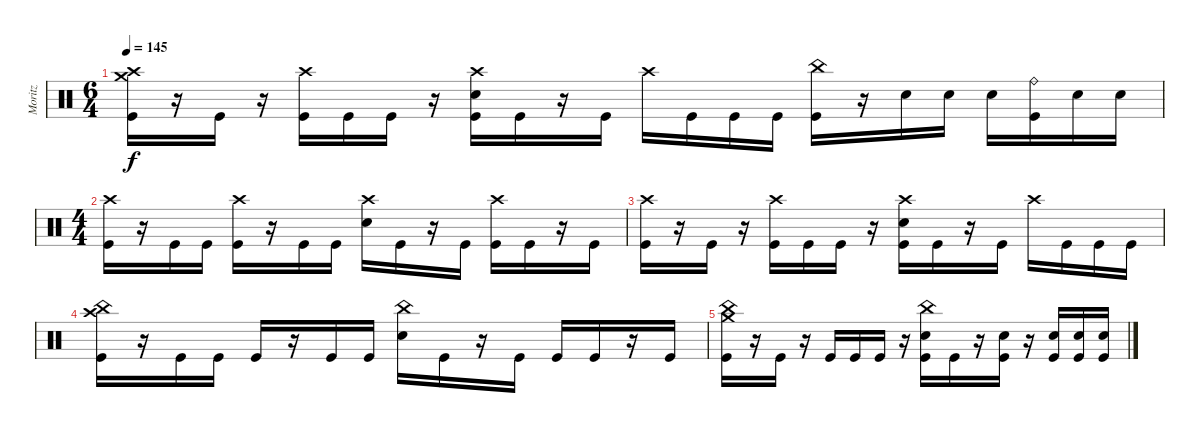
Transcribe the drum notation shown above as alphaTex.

\track ("Moritz" "Moritz") {instrument percussion}
\staff {score}
\articulation defaults
\ts (6 4)
\tempo 145
\clef neutral
\ks c
("Crash medium (hit)" "Crash high (hit)" "Kick (hit)").16{dy f} r.16 "Kick (hit)".16 r.16 ("Crash high (hit)" "Kick (hit)").16 "Kick (hit)".16 "Kick (hit)".16 r.16 ("Crash high (hit)" "Snare (hit) 2" "Kick (hit)").16 "Kick (hit)".16 r.16 "Kick (hit)".16 "Crash high (hit)".16 "Kick (hit)".16 "Kick (hit)".16 "Kick (hit)".16 ("China (hit)" "Kick (hit)").16 r.16 "Snare (hit) 2".16 "Snare (hit) 2".16 "Snare (hit) 2".16 ("Ride (bell)" "Kick (hit)").16 "Snare (hit) 2".16 "Snare (hit) 2".16 |
\ts (4 4)
("Crash high (hit)" "Kick (hit)").16 r.16 "Kick (hit)".16 "Kick (hit)".16 ("Crash high (hit)" "Kick (hit)").16 r.16 "Kick (hit)".16 "Kick (hit)".16 ("Crash high (hit)" "Snare (hit) 2").16 "Kick (hit)".16 r.16 "Kick (hit)".16 ("Crash high (hit)" "Kick (hit)").16 "Kick (hit)".16 r.16 "Kick (hit)".16 |
("Crash high (hit)" "Kick (hit)").16 r.16 "Kick (hit)".16 r.16 ("Crash high (hit)" "Kick (hit)").16 "Kick (hit)".16 "Kick (hit)".16 r.16 ("Crash high (hit)" "Snare (hit) 2" "Kick (hit)").16 "Kick (hit)".16 r.16 "Kick (hit)".16 "Crash high (hit)".16 "Kick (hit)".16 "Kick (hit)".16 "Kick (hit)".16 |
("China (hit)" "Crash high (hit)" "Kick (hit)").16 r.16 "Kick (hit)".16 "Kick (hit)".16 "Kick (hit)".16 r.16 "Kick (hit)".16 "Kick (hit)".16 ("China (hit)" "Snare (hit) 2").16 "Kick (hit)".16 r.16 "Kick (hit)".16 "Kick (hit)".16 "Kick (hit)".16 r.16 "Kick (hit)".16 |
("Crash medium (hit)" "China (hit)" "Kick (hit)").16 r.16 "Kick (hit)".16 r.16 "Kick (hit)".16 "Kick (hit)".16 "Kick (hit)".16 r.16 ("China (hit)" "Snare (hit) 2" "Kick (hit)").16 "Kick (hit)".16 r.16 ("Snare (hit) 2" "Kick (hit)").16 r.16 ("Snare (hit) 2" "Kick (hit)").16 ("Snare (hit) 2" "Kick (hit)").16 ("Snare (hit) 2" "Kick (hit)").16
